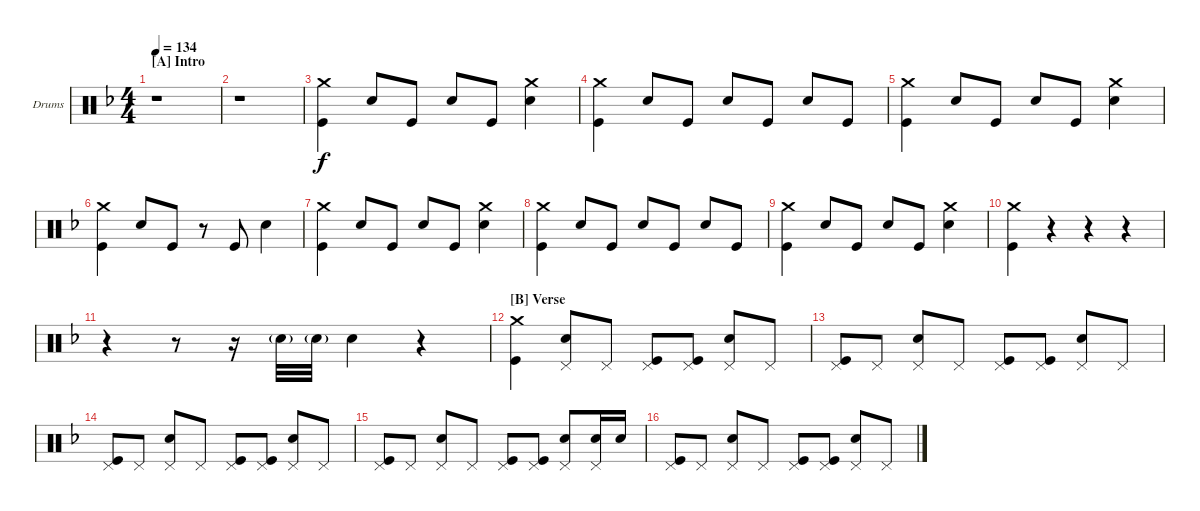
\defaultSystemsLayout 4
\bracketExtendMode groupsimilarinstruments
\firstSystemTrackNameOrientation horizontal
\otherSystemsTrackNameOrientation horizontal
\track ("Carmine" "Drums") {instrument percussion}
\staff {score}
\articulation defaults
\ts (4 4)
\section ("A" "Intro")
\tempo 134
\clef neutral
\ks f
r.1{dy f} |
r.1 |
("Crash medium (hit)" "Kick (hit)").4 "Snare (hit) 2".8 "Kick (hit)".8 "Snare (hit) 2".8 "Kick (hit)".8 ("Crash medium (hit)" "Snare (hit) 2").4 |
("Crash medium (hit)" "Kick (hit)").4 "Snare (hit) 2".8 "Kick (hit)".8 "Snare (hit) 2".8 "Kick (hit)".8 "Snare (hit) 2".8 "Kick (hit)".8 |
("Crash medium (hit)" "Kick (hit)").4 "Snare (hit) 2".8 "Kick (hit)".8 "Snare (hit) 2".8 "Kick (hit)".8 ("Crash medium (hit)" "Snare (hit) 2").4 |
("Crash medium (hit)" "Kick (hit)").4 "Snare (hit) 2".8 "Kick (hit)".8 r.8 "Kick (hit)".8 "Snare (hit) 2".4 |
("Crash medium (hit)" "Kick (hit)").4 "Snare (hit) 2".8 "Kick (hit)".8 "Snare (hit) 2".8 "Kick (hit)".8 ("Crash medium (hit)" "Snare (hit) 2").4 |
("Crash medium (hit)" "Kick (hit)").4 "Snare (hit) 2".8 "Kick (hit)".8 "Snare (hit) 2".8 "Kick (hit)".8 "Snare (hit) 2".8 "Kick (hit)".8 |
("Crash medium (hit)" "Kick (hit)").4 "Snare (hit) 2".8 "Kick (hit)".8 "Snare (hit) 2".8 "Kick (hit)".8 ("Crash medium (hit)" "Snare (hit) 2").4 |
("Crash medium (hit)" "Kick (hit)").4 r.4 r.4 r.4 |
r.4 r.8 r.16 "Snare (hit) 2"{g}.32 "Snare (hit) 2"{g}.32 "Snare (hit) 2".4 r.4 |
\section ("B" "Verse")
("Crash medium (hit)" "Kick (hit)").4 ("Pedal Hi-Hat (hit)" "Snare (hit) 2").8 "Pedal Hi-Hat (hit)".8 ("Pedal Hi-Hat (hit)" "Kick (hit)").8 ("Pedal Hi-Hat (hit)" "Kick (hit)").8 ("Pedal Hi-Hat (hit)" "Snare (hit) 2").8 "Pedal Hi-Hat (hit)".8 |
("Pedal Hi-Hat (hit)" "Kick (hit)").8 "Pedal Hi-Hat (hit)".8 ("Pedal Hi-Hat (hit)" "Snare (hit) 2").8 "Pedal Hi-Hat (hit)".8 ("Pedal Hi-Hat (hit)" "Kick (hit)").8 ("Pedal Hi-Hat (hit)" "Kick (hit)").8 ("Pedal Hi-Hat (hit)" "Snare (hit) 2").8 "Pedal Hi-Hat (hit)".8 |
("Pedal Hi-Hat (hit)" "Kick (hit)").8 "Pedal Hi-Hat (hit)".8 ("Pedal Hi-Hat (hit)" "Snare (hit) 2").8 "Pedal Hi-Hat (hit)".8 ("Pedal Hi-Hat (hit)" "Kick (hit)").8 ("Pedal Hi-Hat (hit)" "Kick (hit)").8 ("Pedal Hi-Hat (hit)" "Snare (hit) 2").8 "Pedal Hi-Hat (hit)".8 |
("Pedal Hi-Hat (hit)" "Kick (hit)").8 "Pedal Hi-Hat (hit)".8 ("Pedal Hi-Hat (hit)" "Snare (hit) 2").8 "Pedal Hi-Hat (hit)".8 ("Pedal Hi-Hat (hit)" "Kick (hit)").8 ("Pedal Hi-Hat (hit)" "Kick (hit)").8 ("Pedal Hi-Hat (hit)" "Snare (hit) 2").8 ("Pedal Hi-Hat (hit)" "Snare (hit) 2").16 "Snare (hit) 2".16 |
("Pedal Hi-Hat (hit)" "Kick (hit)").8 "Pedal Hi-Hat (hit)".8 ("Pedal Hi-Hat (hit)" "Snare (hit) 2").8 "Pedal Hi-Hat (hit)".8 ("Pedal Hi-Hat (hit)" "Kick (hit)").8 ("Pedal Hi-Hat (hit)" "Kick (hit)").8 ("Pedal Hi-Hat (hit)" "Snare (hit) 2").8 "Pedal Hi-Hat (hit)".8
